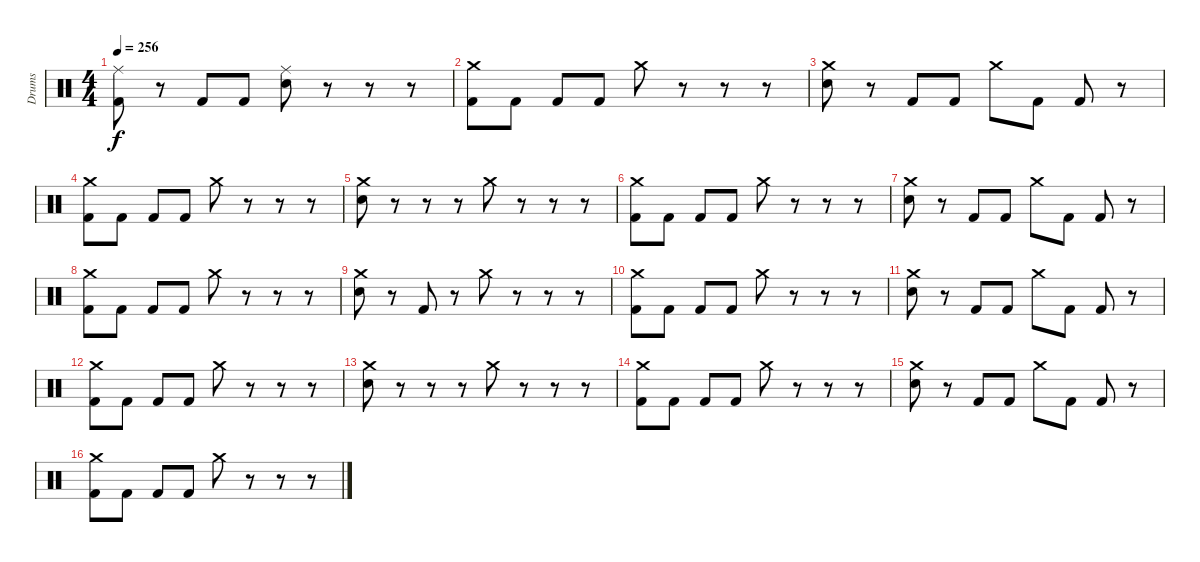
\track ("Drums" "Drums") {instrument percussion}
\staff {score}
\articulation defaults
\ts (4 4)
\tempo 256
\clef neutral
\ks c
("Ride (middle)" "Kick (hit) 2").8{dy f} r.8 "Kick (hit) 2".8 "Kick (hit) 2".8 ("Ride (middle)" "Electric Snare (hit)").8 r.8 r.8 r.8 |
("Crash medium (hit)" "Kick (hit) 2").8 "Kick (hit) 2".8 "Kick (hit) 2".8 "Kick (hit) 2".8 "Crash medium (hit)".8 r.8 r.8 r.8 |
("Crash medium (hit)" "Electric Snare (hit)").8 r.8 "Kick (hit) 2".8 "Kick (hit) 2".8 "Crash medium (hit)".8 "Kick (hit) 2".8 "Kick (hit) 2".8 r.8 |
("Crash medium (hit)" "Kick (hit) 2").8 "Kick (hit) 2".8 "Kick (hit) 2".8 "Kick (hit) 2".8 "Crash medium (hit)".8 r.8 r.8 r.8 |
("Crash medium (hit)" "Electric Snare (hit)").8 r.8 r.8 r.8 "Crash medium (hit)".8 r.8 r.8 r.8 |
("Crash medium (hit)" "Kick (hit) 2").8 "Kick (hit) 2".8 "Kick (hit) 2".8 "Kick (hit) 2".8 "Crash medium (hit)".8 r.8 r.8 r.8 |
("Crash medium (hit)" "Electric Snare (hit)").8 r.8 "Kick (hit) 2".8 "Kick (hit) 2".8 "Crash medium (hit)".8 "Kick (hit) 2".8 "Kick (hit) 2".8 r.8 |
("Crash medium (hit)" "Kick (hit) 2").8 "Kick (hit) 2".8 "Kick (hit) 2".8 "Kick (hit) 2".8 "Crash medium (hit)".8 r.8 r.8 r.8 |
("Crash medium (hit)" "Electric Snare (hit)").8 r.8 "Kick (hit) 2".8 r.8 "Crash medium (hit)".8 r.8 r.8 r.8 |
("Crash medium (hit)" "Kick (hit) 2").8 "Kick (hit) 2".8 "Kick (hit) 2".8 "Kick (hit) 2".8 "Crash medium (hit)".8 r.8 r.8 r.8 |
("Crash medium (hit)" "Electric Snare (hit)").8 r.8 "Kick (hit) 2".8 "Kick (hit) 2".8 "Crash medium (hit)".8 "Kick (hit) 2".8 "Kick (hit) 2".8 r.8 |
("Crash medium (hit)" "Kick (hit) 2").8 "Kick (hit) 2".8 "Kick (hit) 2".8 "Kick (hit) 2".8 "Crash medium (hit)".8 r.8 r.8 r.8 |
("Crash medium (hit)" "Electric Snare (hit)").8 r.8 r.8 r.8 "Crash medium (hit)".8 r.8 r.8 r.8 |
("Crash medium (hit)" "Kick (hit) 2").8 "Kick (hit) 2".8 "Kick (hit) 2".8 "Kick (hit) 2".8 "Crash medium (hit)".8 r.8 r.8 r.8 |
("Crash medium (hit)" "Electric Snare (hit)").8 r.8 "Kick (hit) 2".8 "Kick (hit) 2".8 "Crash medium (hit)".8 "Kick (hit) 2".8 "Kick (hit) 2".8 r.8 |
("Crash medium (hit)" "Kick (hit) 2").8 "Kick (hit) 2".8 "Kick (hit) 2".8 "Kick (hit) 2".8 "Crash medium (hit)".8 r.8 r.8 r.8
